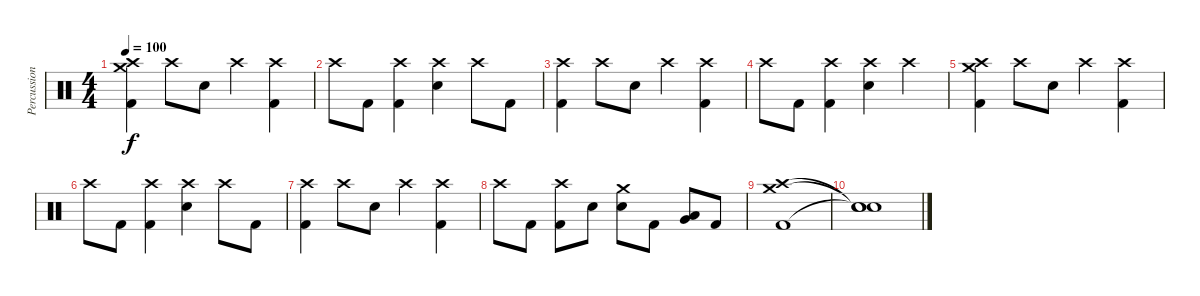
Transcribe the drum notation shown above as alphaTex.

\track ("Percussion" "Percussion") {instrument percussion}
\staff {score}
\articulation defaults
\ts (4 4)
\tempo 100
\clef neutral
\ks c
("Crash medium (hit)" "Crash high (hit)" "Kick (hit) 2").4{dy f} "Crash high (hit)".8 "Electric Snare (hit)".8 "Crash high (hit)".4 ("Crash high (hit)" "Kick (hit) 2").4 |
"Crash high (hit)".8 "Kick (hit) 2".8 ("Crash high (hit)" "Kick (hit) 2").4 ("Crash high (hit)" "Electric Snare (hit)").4 "Crash high (hit)".8 "Kick (hit) 2".8 |
("Crash high (hit)" "Kick (hit) 2").4 "Crash high (hit)".8 "Electric Snare (hit)".8 "Crash high (hit)".4 ("Crash high (hit)" "Kick (hit) 2").4 |
"Crash high (hit)".8 "Kick (hit) 2".8 ("Crash high (hit)" "Kick (hit) 2").4 ("Crash high (hit)" "Electric Snare (hit)").4 "Crash high (hit)".4 |
("Crash medium (hit)" "Crash high (hit)" "Kick (hit) 2").4 "Crash high (hit)".8 "Electric Snare (hit)".8 "Crash high (hit)".4 ("Crash high (hit)" "Kick (hit) 2").4 |
"Crash high (hit)".8 "Kick (hit) 2".8 ("Crash high (hit)" "Kick (hit) 2").4 ("Crash high (hit)" "Electric Snare (hit)").4 "Crash high (hit)".8 "Kick (hit) 2".8 |
("Crash high (hit)" "Kick (hit) 2").4 "Crash high (hit)".8 "Electric Snare (hit)".8 "Crash high (hit)".4 ("Crash high (hit)" "Kick (hit) 2").4 |
"Crash high (hit)".8 "Kick (hit) 2".8 ("Crash high (hit)" "Kick (hit) 2").8 "Electric Snare (hit)".8 ("Crash medium (hit)" "Electric Snare (hit)").8 "Kick (hit) 2".8 ("Very Low Tom (hit)" "Low Floor Tom (hit)").8 "Kick (hit) 2".8 |
("Crash medium (hit)" "Crash high (hit)" "Kick (hit) 2").1 |
("Snare (hit)"{t} "Snare (hit)"{t} "Snare (hit)"{t}).1
